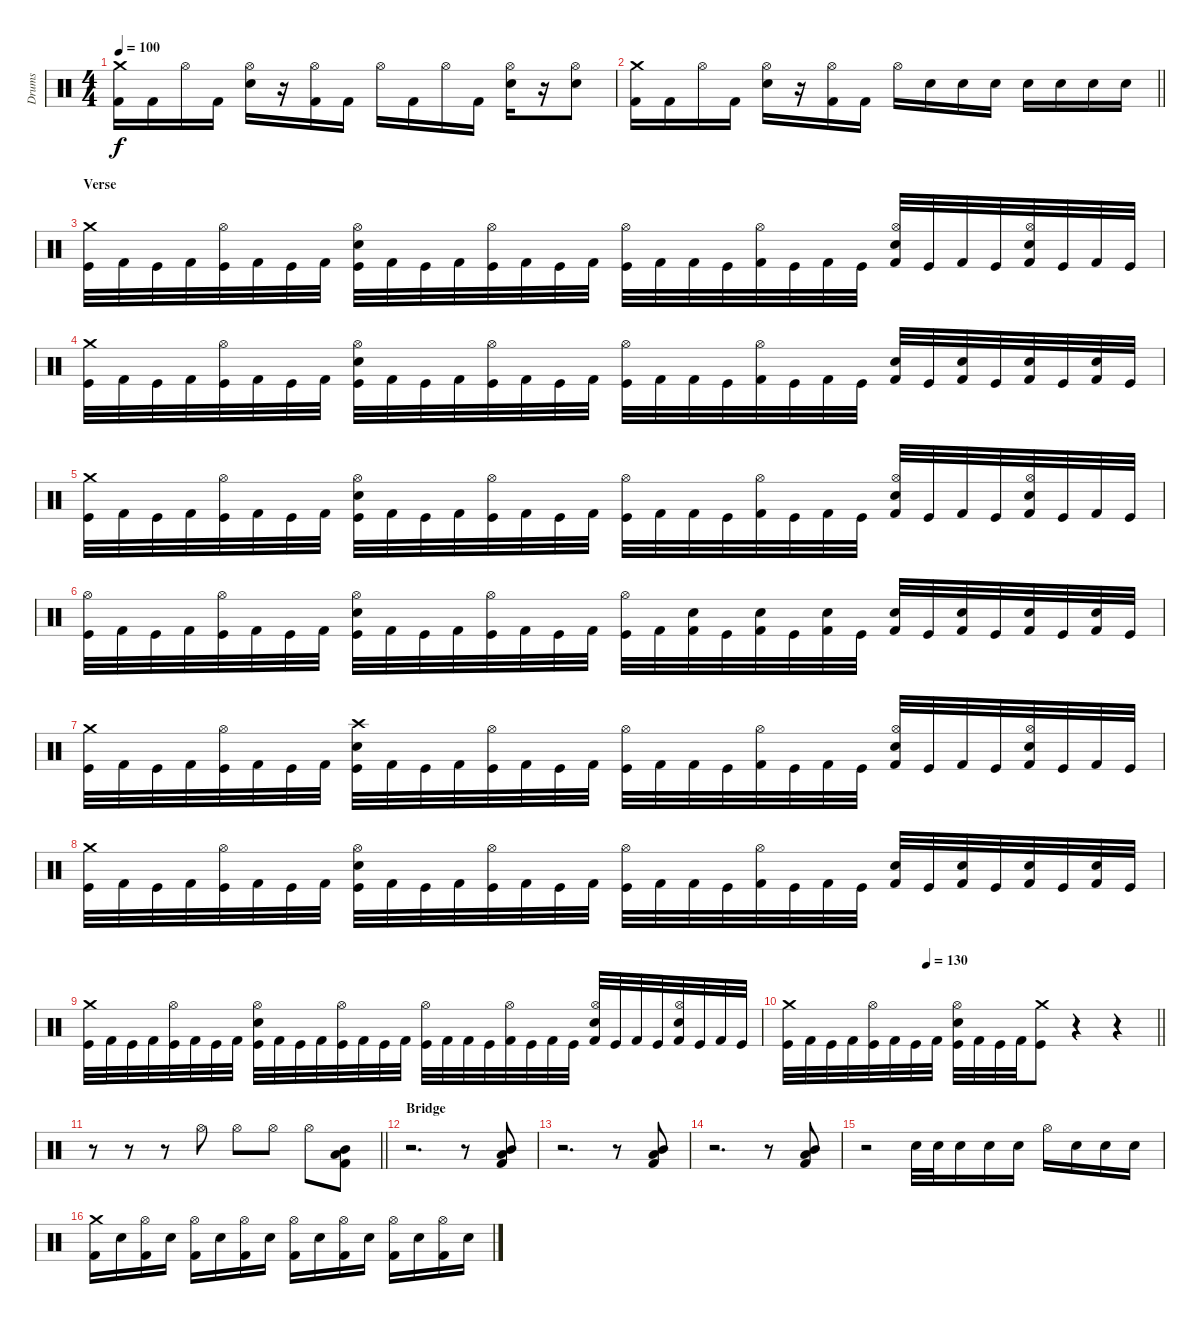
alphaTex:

\track ("Drums" "Drums") {instrument percussion}
\staff {score}
\articulation defaults
\ts (4 4)
\tempo 100
\clef neutral
\ks c
("Crash medium (hit)" "Kick (hit) 2").16{dy f} "Kick (hit) 2".16 "Hi-Hat (open)".16 "Kick (hit) 2".16 ("Hi-Hat (open)" "Electric Snare (hit)").16 r.16 ("Hi-Hat (open)" "Kick (hit) 2").16 "Kick (hit) 2".16 "Hi-Hat (open)".16 "Kick (hit) 2".16 "Hi-Hat (open)".16 "Kick (hit) 2".16 ("Hi-Hat (open)" "Electric Snare (hit)").16 r.16 ("Hi-Hat (open)" "Electric Snare (hit)").8 |
\barLineRight lightlight
("Crash medium (hit)" "Kick (hit) 2").16 "Kick (hit) 2".16 "Hi-Hat (open)".16 "Kick (hit) 2".16 ("Hi-Hat (open)" "Electric Snare (hit)").16 r.16 ("Hi-Hat (open)" "Kick (hit) 2").16 "Kick (hit) 2".16 "Hi-Hat (open)".16 "Electric Snare (hit)".16 "Electric Snare (hit)".16 "Electric Snare (hit)".16 "Electric Snare (hit)".16 "Electric Snare (hit)".16 "Electric Snare (hit)".16 "Electric Snare (hit)".16 |
\section ("" "Verse")
("Crash medium (hit)" "Kick (hit)").32 "Kick (hit) 2".32 "Kick (hit)".32 "Kick (hit) 2".32 ("Hi-Hat (open)" "Kick (hit)").32 "Kick (hit) 2".32 "Kick (hit)".32 "Kick (hit) 2".32 ("Hi-Hat (open)" "Electric Snare (hit)" "Kick (hit)").32 "Kick (hit) 2".32 "Kick (hit)".32 "Kick (hit) 2".32 ("Hi-Hat (open)" "Kick (hit)").32 "Kick (hit) 2".32 "Kick (hit)".32 "Kick (hit) 2".32 ("Hi-Hat (open)" "Kick (hit)").32 "Kick (hit) 2".32 "Kick (hit) 2".32 "Kick (hit)".32 ("Hi-Hat (open)" "Kick (hit) 2").32 "Kick (hit)".32 "Kick (hit) 2".32 "Kick (hit)".32 ("Hi-Hat (open)" "Electric Snare (hit)" "Kick (hit) 2").32 "Kick (hit)".32 "Kick (hit) 2".32 "Kick (hit)".32 ("Hi-Hat (open)" "Electric Snare (hit)" "Kick (hit) 2").32 "Kick (hit)".32 "Kick (hit) 2".32 "Kick (hit)".32 |
("Crash medium (hit)" "Kick (hit)").32 "Kick (hit) 2".32 "Kick (hit)".32 "Kick (hit) 2".32 ("Hi-Hat (open)" "Kick (hit)").32 "Kick (hit) 2".32 "Kick (hit)".32 "Kick (hit) 2".32 ("Hi-Hat (open)" "Electric Snare (hit)" "Kick (hit)").32 "Kick (hit) 2".32 "Kick (hit)".32 "Kick (hit) 2".32 ("Hi-Hat (open)" "Kick (hit)").32 "Kick (hit) 2".32 "Kick (hit)".32 "Kick (hit) 2".32 ("Hi-Hat (open)" "Kick (hit)").32 "Kick (hit) 2".32 "Kick (hit) 2".32 "Kick (hit)".32 ("Hi-Hat (open)" "Kick (hit) 2").32 "Kick (hit)".32 "Kick (hit) 2".32 "Kick (hit)".32 ("Electric Snare (hit)" "Kick (hit) 2").32 "Kick (hit)".32 ("Electric Snare (hit)" "Kick (hit) 2").32 "Kick (hit)".32 ("Electric Snare (hit)" "Kick (hit) 2").32 "Kick (hit)".32 ("Electric Snare (hit)" "Kick (hit) 2").32 "Kick (hit)".32 |
("Crash medium (hit)" "Kick (hit)").32 "Kick (hit) 2".32 "Kick (hit)".32 "Kick (hit) 2".32 ("Hi-Hat (open)" "Kick (hit)").32 "Kick (hit) 2".32 "Kick (hit)".32 "Kick (hit) 2".32 ("Hi-Hat (open)" "Electric Snare (hit)" "Kick (hit)").32 "Kick (hit) 2".32 "Kick (hit)".32 "Kick (hit) 2".32 ("Hi-Hat (open)" "Kick (hit)").32 "Kick (hit) 2".32 "Kick (hit)".32 "Kick (hit) 2".32 ("Hi-Hat (open)" "Kick (hit)").32 "Kick (hit) 2".32 "Kick (hit) 2".32 "Kick (hit)".32 ("Hi-Hat (open)" "Kick (hit) 2").32 "Kick (hit)".32 "Kick (hit) 2".32 "Kick (hit)".32 ("Hi-Hat (open)" "Electric Snare (hit)" "Kick (hit) 2").32 "Kick (hit)".32 "Kick (hit) 2".32 "Kick (hit)".32 ("Hi-Hat (open)" "Electric Snare (hit)" "Kick (hit) 2").32 "Kick (hit)".32 "Kick (hit) 2".32 "Kick (hit)".32 |
("Hi-Hat (open)" "Kick (hit)").32 "Kick (hit) 2".32 "Kick (hit)".32 "Kick (hit) 2".32 ("Hi-Hat (open)" "Kick (hit)").32 "Kick (hit) 2".32 "Kick (hit)".32 "Kick (hit) 2".32 ("Hi-Hat (open)" "Electric Snare (hit)" "Kick (hit)").32 "Kick (hit) 2".32 "Kick (hit)".32 "Kick (hit) 2".32 ("Hi-Hat (open)" "Kick (hit)").32 "Kick (hit) 2".32 "Kick (hit)".32 "Kick (hit) 2".32 ("Hi-Hat (open)" "Kick (hit)").32 "Kick (hit) 2".32 ("Electric Snare (hit)" "Kick (hit) 2").32 "Kick (hit)".32 ("Electric Snare (hit)" "Kick (hit) 2").32 "Kick (hit)".32 ("Electric Snare (hit)" "Kick (hit) 2").32 "Kick (hit)".32 ("Electric Snare (hit)" "Kick (hit) 2").32 "Kick (hit)".32 ("Electric Snare (hit)" "Kick (hit) 2").32 "Kick (hit)".32 ("Electric Snare (hit)" "Kick (hit) 2").32 "Kick (hit)".32 ("Electric Snare (hit)" "Kick (hit) 2").32 "Kick (hit)".32 |
("Crash medium (hit)" "Kick (hit)").32 "Kick (hit) 2".32 "Kick (hit)".32 "Kick (hit) 2".32 ("Hi-Hat (open)" "Kick (hit)").32 "Kick (hit) 2".32 "Kick (hit)".32 "Kick (hit) 2".32 ("Crash high (hit)" "Electric Snare (hit)" "Kick (hit)").32 "Kick (hit) 2".32 "Kick (hit)".32 "Kick (hit) 2".32 ("Hi-Hat (open)" "Kick (hit)").32 "Kick (hit) 2".32 "Kick (hit)".32 "Kick (hit) 2".32 ("Hi-Hat (open)" "Kick (hit)").32 "Kick (hit) 2".32 "Kick (hit) 2".32 "Kick (hit)".32 ("Hi-Hat (open)" "Kick (hit) 2").32 "Kick (hit)".32 "Kick (hit) 2".32 "Kick (hit)".32 ("Hi-Hat (open)" "Electric Snare (hit)" "Kick (hit) 2").32 "Kick (hit)".32 "Kick (hit) 2".32 "Kick (hit)".32 ("Hi-Hat (open)" "Electric Snare (hit)" "Kick (hit) 2").32 "Kick (hit)".32 "Kick (hit) 2".32 "Kick (hit)".32 |
("Crash medium (hit)" "Kick (hit)").32 "Kick (hit) 2".32 "Kick (hit)".32 "Kick (hit) 2".32 ("Hi-Hat (open)" "Kick (hit)").32 "Kick (hit) 2".32 "Kick (hit)".32 "Kick (hit) 2".32 ("Hi-Hat (open)" "Electric Snare (hit)" "Kick (hit)").32 "Kick (hit) 2".32 "Kick (hit)".32 "Kick (hit) 2".32 ("Hi-Hat (open)" "Kick (hit)").32 "Kick (hit) 2".32 "Kick (hit)".32 "Kick (hit) 2".32 ("Hi-Hat (open)" "Kick (hit)").32 "Kick (hit) 2".32 "Kick (hit) 2".32 "Kick (hit)".32 ("Hi-Hat (open)" "Kick (hit) 2").32 "Kick (hit)".32 "Kick (hit) 2".32 "Kick (hit)".32 ("Electric Snare (hit)" "Kick (hit) 2").32 "Kick (hit)".32 ("Electric Snare (hit)" "Kick (hit) 2").32 "Kick (hit)".32 ("Electric Snare (hit)" "Kick (hit) 2").32 "Kick (hit)".32 ("Electric Snare (hit)" "Kick (hit) 2").32 "Kick (hit)".32 |
("Crash medium (hit)" "Kick (hit)").32 "Kick (hit) 2".32 "Kick (hit)".32 "Kick (hit) 2".32 ("Hi-Hat (open)" "Kick (hit)").32 "Kick (hit) 2".32 "Kick (hit)".32 "Kick (hit) 2".32 ("Hi-Hat (open)" "Electric Snare (hit)" "Kick (hit)").32 "Kick (hit) 2".32 "Kick (hit)".32 "Kick (hit) 2".32 ("Hi-Hat (open)" "Kick (hit)").32 "Kick (hit) 2".32 "Kick (hit)".32 "Kick (hit) 2".32 ("Hi-Hat (open)" "Kick (hit)").32 "Kick (hit) 2".32 "Kick (hit) 2".32 "Kick (hit)".32 ("Hi-Hat (open)" "Kick (hit) 2").32 "Kick (hit)".32 "Kick (hit) 2".32 "Kick (hit)".32 ("Hi-Hat (open)" "Electric Snare (hit)" "Kick (hit) 2").32 "Kick (hit)".32 "Kick (hit) 2".32 "Kick (hit)".32 ("Hi-Hat (open)" "Electric Snare (hit)" "Kick (hit) 2").32 "Kick (hit)".32 "Kick (hit) 2".32 "Kick (hit)".32 |
\tempo (130 0.375)
\barLineRight lightlight
("Crash medium (hit)" "Kick (hit)").32 "Kick (hit) 2".32 "Kick (hit)".32 "Kick (hit) 2".32 ("Hi-Hat (open)" "Kick (hit)").32 "Kick (hit) 2".32 "Kick (hit)".32 "Kick (hit) 2".32 ("Hi-Hat (open)" "Electric Snare (hit)" "Kick (hit)").32 "Kick (hit) 2".32 "Kick (hit)".32 "Kick (hit) 2".32 ("Crash medium (hit)" "Kick (hit)").8 r.4 r.4 |
\barLineRight lightlight
r.8 r.8 r.8 "Hi-Hat (open)".8 "Hi-Hat (open)".8 "Hi-Hat (open)".8 "Hi-Hat (open)".8 ("Mid Tom (hit)" "Low Tom (hit)" "Kick (hit) 2").8 |
\section ("" "Bridge")
r.2{d} r.8 ("Mid Tom (hit)" "Low Tom (hit)" "Kick (hit) 2").8 |
r.2{d} r.8 ("Mid Tom (hit)" "Low Tom (hit)" "Kick (hit) 2").8 |
r.2{d} r.8 ("Mid Tom (hit)" "Low Tom (hit)" "Kick (hit) 2").8 |
r.2 "Electric Snare (hit)".32 "Electric Snare (hit)".32 "Electric Snare (hit)".16 "Electric Snare (hit)".16 "Electric Snare (hit)".16 "Hi-Hat (open)".16 "Electric Snare (hit)".16 "Electric Snare (hit)".16 "Electric Snare (hit)".16 |
("Crash medium (hit)" "Kick (hit) 2").16 "Electric Snare (hit)".16 ("Hi-Hat (open)" "Kick (hit) 2").16 "Electric Snare (hit)".16 ("Hi-Hat (open)" "Kick (hit) 2").16 "Electric Snare (hit)".16 ("Hi-Hat (open)" "Kick (hit) 2").16 "Electric Snare (hit)".16 ("Hi-Hat (open)" "Kick (hit) 2").16 "Electric Snare (hit)".16 ("Hi-Hat (open)" "Kick (hit) 2").16 "Electric Snare (hit)".16 ("Hi-Hat (open)" "Kick (hit) 2").16 "Electric Snare (hit)".16 ("Hi-Hat (open)" "Kick (hit) 2").16 "Electric Snare (hit)".16
